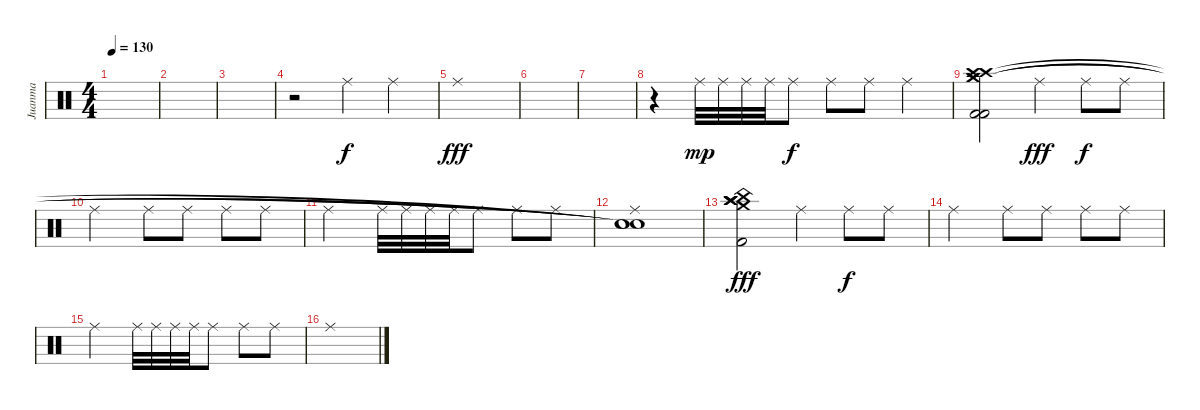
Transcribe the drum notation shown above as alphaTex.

\track ("Juanma" "Juanma") {instrument percussion}
\staff {score}
\articulation defaults
\ts (4 4)
\tempo 130
\clef neutral
\ks c
|
|
|
r.2 "Ride (middle)".4 "Ride (middle)".4{dy f} |
"Ride (middle)".1{dy fff} |
|
|
r.4 "Ride (middle)".32{dy mp} "Ride (middle)".32 "Ride (middle)".32 "Ride (middle)".32 "Ride (middle)".8{dy f} "Ride (middle)".8 "Ride (middle)".8 "Ride (middle)".4 |
("Crash high (hit)" "Crash medium (hit)" "Crash high (hit)" "Crash medium (hit)" "Kick (hit) 2" "Kick (hit) 2").2 "Ride (middle)".4{dy fff} "Ride (middle)".8{dy f} "Ride (middle)".8 |
"Ride (middle)".2 "Ride (middle)".8 "Ride (middle)".8 "Ride (middle)".8 "Ride (middle)".8 |
"Ride (middle)".2 "Ride (middle)".32 "Ride (middle)".32 "Ride (middle)".32 "Ride (middle)".32 "Ride (middle)".8 "Ride (middle)".8 "Ride (middle)".8 |
("Ride (middle)" "Snare (hit)"{t} "Snare (hit)"{t} "Snare (hit)"{t}).1 |
("Crash high (hit)" "Crash medium (hit)"{be (custom 0 0 10 4 20 4 30 0 40 0 50 4 60 4)} "China (hit)" "Crash high (hit)" "Crash high (hit)" "Kick (hit) 2").2{dy fff} "Ride (middle)".4 "Ride (middle)".8{dy f} "Ride (middle)".8 |
"Ride (middle)".2 "Ride (middle)".8 "Ride (middle)".8 "Ride (middle)".8 "Ride (middle)".8 |
"Ride (middle)".2 "Ride (middle)".32 "Ride (middle)".32 "Ride (middle)".32 "Ride (middle)".32 "Ride (middle)".8 "Ride (middle)".8 "Ride (middle)".8 |
"Ride (middle)".1
